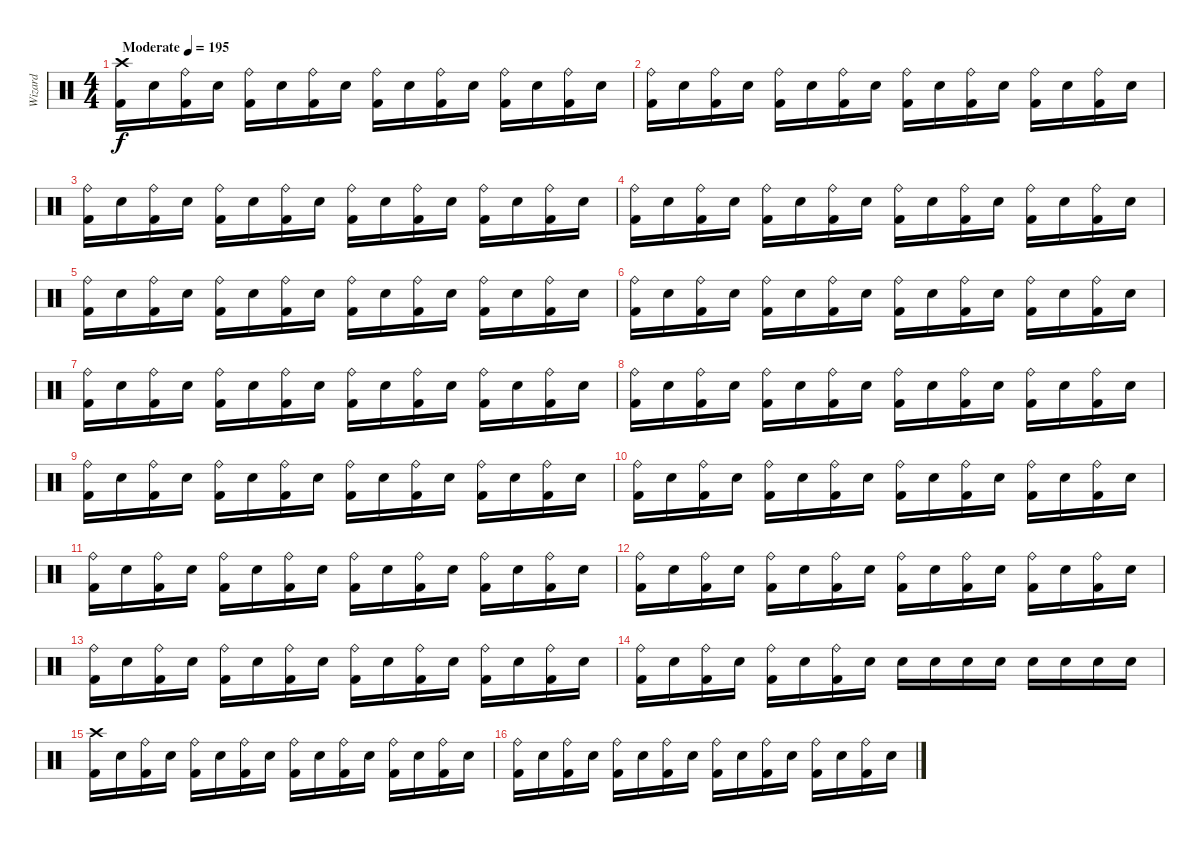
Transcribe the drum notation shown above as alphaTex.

\track ("Wizard" "Wizard") {instrument percussion}
\staff {score}
\articulation defaults
\ts (4 4)
\tempo (195 "Moderate")
\clef neutral
\ks c
("Crash high (hit)" "Kick (hit) 2").16{dy f} "Snare (hit) 2".16 ("Ride (bell)" "Kick (hit) 2").16 "Snare (hit) 2".16 ("Ride (bell)" "Kick (hit) 2").16 "Snare (hit) 2".16 ("Ride (bell)" "Kick (hit) 2").16 "Snare (hit) 2".16 ("Ride (bell)" "Kick (hit) 2").16 "Snare (hit) 2".16 ("Ride (bell)" "Kick (hit) 2").16 "Snare (hit) 2".16 ("Ride (bell)" "Kick (hit) 2").16 "Snare (hit) 2".16 ("Ride (bell)" "Kick (hit) 2").16 "Snare (hit) 2".16 |
("Ride (bell)" "Kick (hit) 2").16 "Snare (hit) 2".16 ("Ride (bell)" "Kick (hit) 2").16 "Snare (hit) 2".16 ("Ride (bell)" "Kick (hit) 2").16 "Snare (hit) 2".16 ("Ride (bell)" "Kick (hit) 2").16 "Snare (hit) 2".16 ("Ride (bell)" "Kick (hit) 2").16 "Snare (hit) 2".16 ("Ride (bell)" "Kick (hit) 2").16 "Snare (hit) 2".16 ("Ride (bell)" "Kick (hit) 2").16 "Snare (hit) 2".16 ("Ride (bell)" "Kick (hit) 2").16 "Snare (hit) 2".16 |
("Ride (bell)" "Kick (hit) 2").16 "Snare (hit) 2".16 ("Ride (bell)" "Kick (hit) 2").16 "Snare (hit) 2".16 ("Ride (bell)" "Kick (hit) 2").16 "Snare (hit) 2".16 ("Ride (bell)" "Kick (hit) 2").16 "Snare (hit) 2".16 ("Ride (bell)" "Kick (hit) 2").16 "Snare (hit) 2".16 ("Ride (bell)" "Kick (hit) 2").16 "Snare (hit) 2".16 ("Ride (bell)" "Kick (hit) 2").16 "Snare (hit) 2".16 ("Ride (bell)" "Kick (hit) 2").16 "Snare (hit) 2".16 |
("Ride (bell)" "Kick (hit) 2").16 "Snare (hit) 2".16 ("Ride (bell)" "Kick (hit) 2").16 "Snare (hit) 2".16 ("Ride (bell)" "Kick (hit) 2").16 "Snare (hit) 2".16 ("Ride (bell)" "Kick (hit) 2").16 "Snare (hit) 2".16 ("Ride (bell)" "Kick (hit) 2").16 "Snare (hit) 2".16 ("Ride (bell)" "Kick (hit) 2").16 "Snare (hit) 2".16 ("Ride (bell)" "Kick (hit) 2").16 "Snare (hit) 2".16 ("Ride (bell)" "Kick (hit) 2").16 "Snare (hit) 2".16 |
("Ride (bell)" "Kick (hit) 2").16 "Snare (hit) 2".16 ("Ride (bell)" "Kick (hit) 2").16 "Snare (hit) 2".16 ("Ride (bell)" "Kick (hit) 2").16 "Snare (hit) 2".16 ("Ride (bell)" "Kick (hit) 2").16 "Snare (hit) 2".16 ("Ride (bell)" "Kick (hit) 2").16 "Snare (hit) 2".16 ("Ride (bell)" "Kick (hit) 2").16 "Snare (hit) 2".16 ("Ride (bell)" "Kick (hit) 2").16 "Snare (hit) 2".16 ("Ride (bell)" "Kick (hit) 2").16 "Snare (hit) 2".16 |
("Ride (bell)" "Kick (hit) 2").16 "Snare (hit) 2".16 ("Ride (bell)" "Kick (hit) 2").16 "Snare (hit) 2".16 ("Ride (bell)" "Kick (hit) 2").16 "Snare (hit) 2".16 ("Ride (bell)" "Kick (hit) 2").16 "Snare (hit) 2".16 ("Ride (bell)" "Kick (hit) 2").16 "Snare (hit) 2".16 ("Ride (bell)" "Kick (hit) 2").16 "Snare (hit) 2".16 ("Ride (bell)" "Kick (hit) 2").16 "Snare (hit) 2".16 ("Ride (bell)" "Kick (hit) 2").16 "Snare (hit) 2".16 |
("Ride (bell)" "Kick (hit) 2").16 "Snare (hit) 2".16 ("Ride (bell)" "Kick (hit) 2").16 "Snare (hit) 2".16 ("Ride (bell)" "Kick (hit) 2").16 "Snare (hit) 2".16 ("Ride (bell)" "Kick (hit) 2").16 "Snare (hit) 2".16 ("Ride (bell)" "Kick (hit) 2").16 "Snare (hit) 2".16 ("Ride (bell)" "Kick (hit) 2").16 "Snare (hit) 2".16 ("Ride (bell)" "Kick (hit) 2").16 "Snare (hit) 2".16 ("Ride (bell)" "Kick (hit) 2").16 "Snare (hit) 2".16 |
("Ride (bell)" "Kick (hit) 2").16 "Snare (hit) 2".16 ("Ride (bell)" "Kick (hit) 2").16 "Snare (hit) 2".16 ("Ride (bell)" "Kick (hit) 2").16 "Snare (hit) 2".16 ("Ride (bell)" "Kick (hit) 2").16 "Snare (hit) 2".16 ("Ride (bell)" "Kick (hit) 2").16 "Snare (hit) 2".16 ("Ride (bell)" "Kick (hit) 2").16 "Snare (hit) 2".16 ("Ride (bell)" "Kick (hit) 2").16 "Snare (hit) 2".16 ("Ride (bell)" "Kick (hit) 2").16 "Snare (hit) 2".16 |
("Ride (bell)" "Kick (hit) 2").16 "Snare (hit) 2".16 ("Ride (bell)" "Kick (hit) 2").16 "Snare (hit) 2".16 ("Ride (bell)" "Kick (hit) 2").16 "Snare (hit) 2".16 ("Ride (bell)" "Kick (hit) 2").16 "Snare (hit) 2".16 ("Ride (bell)" "Kick (hit) 2").16 "Snare (hit) 2".16 ("Ride (bell)" "Kick (hit) 2").16 "Snare (hit) 2".16 ("Ride (bell)" "Kick (hit) 2").16 "Snare (hit) 2".16 ("Ride (bell)" "Kick (hit) 2").16 "Snare (hit) 2".16 |
("Ride (bell)" "Kick (hit) 2").16 "Snare (hit) 2".16 ("Ride (bell)" "Kick (hit) 2").16 "Snare (hit) 2".16 ("Ride (bell)" "Kick (hit) 2").16 "Snare (hit) 2".16 ("Ride (bell)" "Kick (hit) 2").16 "Snare (hit) 2".16 ("Ride (bell)" "Kick (hit) 2").16 "Snare (hit) 2".16 ("Ride (bell)" "Kick (hit) 2").16 "Snare (hit) 2".16 ("Ride (bell)" "Kick (hit) 2").16 "Snare (hit) 2".16 ("Ride (bell)" "Kick (hit) 2").16 "Snare (hit) 2".16 |
("Ride (bell)" "Kick (hit) 2").16 "Snare (hit) 2".16 ("Ride (bell)" "Kick (hit) 2").16 "Snare (hit) 2".16 ("Ride (bell)" "Kick (hit) 2").16 "Snare (hit) 2".16 ("Ride (bell)" "Kick (hit) 2").16 "Snare (hit) 2".16 ("Ride (bell)" "Kick (hit) 2").16 "Snare (hit) 2".16 ("Ride (bell)" "Kick (hit) 2").16 "Snare (hit) 2".16 ("Ride (bell)" "Kick (hit) 2").16 "Snare (hit) 2".16 ("Ride (bell)" "Kick (hit) 2").16 "Snare (hit) 2".16 |
("Ride (bell)" "Kick (hit) 2").16 "Snare (hit) 2".16 ("Ride (bell)" "Kick (hit) 2").16 "Snare (hit) 2".16 ("Ride (bell)" "Kick (hit) 2").16 "Snare (hit) 2".16 ("Ride (bell)" "Kick (hit) 2").16 "Snare (hit) 2".16 ("Ride (bell)" "Kick (hit) 2").16 "Snare (hit) 2".16 ("Ride (bell)" "Kick (hit) 2").16 "Snare (hit) 2".16 ("Ride (bell)" "Kick (hit) 2").16 "Snare (hit) 2".16 ("Ride (bell)" "Kick (hit) 2").16 "Snare (hit) 2".16 |
("Ride (bell)" "Kick (hit) 2").16 "Snare (hit) 2".16 ("Ride (bell)" "Kick (hit) 2").16 "Snare (hit) 2".16 ("Ride (bell)" "Kick (hit) 2").16 "Snare (hit) 2".16 ("Ride (bell)" "Kick (hit) 2").16 "Snare (hit) 2".16 ("Ride (bell)" "Kick (hit) 2").16 "Snare (hit) 2".16 ("Ride (bell)" "Kick (hit) 2").16 "Snare (hit) 2".16 ("Ride (bell)" "Kick (hit) 2").16 "Snare (hit) 2".16 ("Ride (bell)" "Kick (hit) 2").16 "Snare (hit) 2".16 |
("Ride (bell)" "Kick (hit) 2").16 "Snare (hit) 2".16 ("Ride (bell)" "Kick (hit) 2").16 "Snare (hit) 2".16 ("Ride (bell)" "Kick (hit) 2").16 "Snare (hit) 2".16 ("Ride (bell)" "Kick (hit) 2").16 "Snare (hit) 2".16 "Snare (hit) 2".16 "Snare (hit) 2".16 "Snare (hit) 2".16 "Snare (hit) 2".16 "Snare (hit) 2".16 "Snare (hit) 2".16 "Snare (hit) 2".16 "Snare (hit) 2".16 |
("Crash high (hit)" "Kick (hit) 2").16 "Snare (hit) 2".16 ("Ride (bell)" "Kick (hit) 2").16 "Snare (hit) 2".16 ("Ride (bell)" "Kick (hit) 2").16 "Snare (hit) 2".16 ("Ride (bell)" "Kick (hit) 2").16 "Snare (hit) 2".16 ("Ride (bell)" "Kick (hit) 2").16 "Snare (hit) 2".16 ("Ride (bell)" "Kick (hit) 2").16 "Snare (hit) 2".16 ("Ride (bell)" "Kick (hit) 2").16 "Snare (hit) 2".16 ("Ride (bell)" "Kick (hit) 2").16 "Snare (hit) 2".16 |
("Ride (bell)" "Kick (hit) 2").16 "Snare (hit) 2".16 ("Ride (bell)" "Kick (hit) 2").16 "Snare (hit) 2".16 ("Ride (bell)" "Kick (hit) 2").16 "Snare (hit) 2".16 ("Ride (bell)" "Kick (hit) 2").16 "Snare (hit) 2".16 ("Ride (bell)" "Kick (hit) 2").16 "Snare (hit) 2".16 ("Ride (bell)" "Kick (hit) 2").16 "Snare (hit) 2".16 ("Ride (bell)" "Kick (hit) 2").16 "Snare (hit) 2".16 ("Ride (bell)" "Kick (hit) 2").16 "Snare (hit) 2".16
